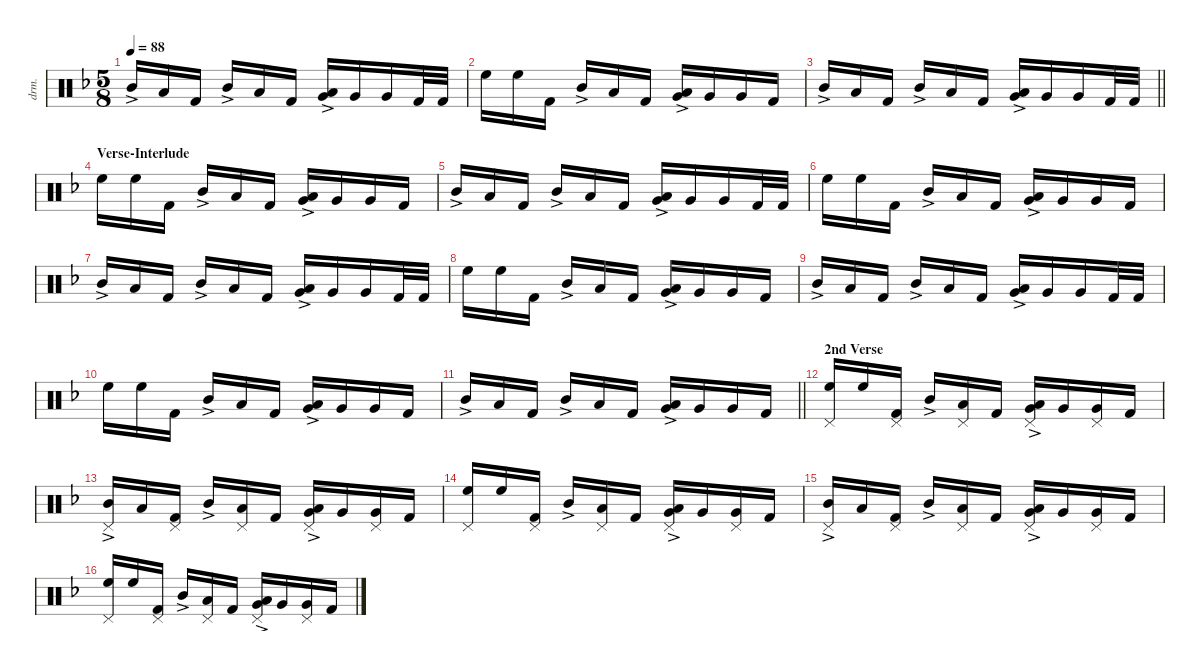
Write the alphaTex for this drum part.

\defaultSystemsLayout 4
\hideDynamics
\bracketExtendMode nobrackets
\otherSystemsTrackNameOrientation horizontal
\track ("Drums" "drm.") {instrument percussion}
\staff {score}
\articulation defaults
\ts (5 8)
\tempo 88
\clef neutral
\ks dminor "Mid Tom (hit)"{ac acc forcenatural}.16{dy f beam Up} "Low Tom (hit)"{acc forcenatural}.16{beam Up beam merge} "Kick (hit) 2"{acc forcenatural}.16{beam Up beam split} "Mid Tom (hit)"{ac acc forcenatural}.16{beam Up beam merge} "Low Tom (hit)"{acc forcenatural}.16{beam Up} "Kick (hit) 2"{acc forcenatural}.16{beam Up beam split}
("Low Tom (hit)"{ac acc forcenatural} "Very Low Tom (hit)"{acc forcenatural}).16{beam Up} "Very Low Tom (hit)"{acc forcenatural}.16{beam Up beam merge} "Very Low Tom (hit)"{acc forcenatural}.16{beam Up} "Kick (hit) 2"{acc forcenatural}.32{beam Up} "Kick (hit) 2"{acc forcenatural}.32{beam Up} |
"High Floor Tom (hit)"{acc forcenatural}.16{beam Down} "High Floor Tom (hit)"{acc forcenatural}.16{beam Down beam merge} "Kick (hit) 2"{acc forcenatural}.16{beam Down beam split} "Mid Tom (hit)"{ac acc forcenatural}.16{beam Up beam merge} "Low Tom (hit)"{acc forcenatural}.16{beam Up} "Kick (hit) 2"{acc forcenatural}.16{beam Up beam split} ("Low Tom (hit)"{ac acc forcenatural} "Very Low Tom (hit)"{acc forcenatural}).16{beam Up} "Very Low Tom (hit)"{acc forcenatural}.16{beam Up beam merge} "Very Low Tom (hit)"{acc forcenatural}.16{beam Up} "Kick (hit) 2"{acc forcenatural}.16{beam Up} |
\barLineRight lightlight "Mid Tom (hit)"{ac acc forcenatural}.16{beam Up} "Low Tom (hit)"{acc forcenatural}.16{beam Up beam merge} "Kick (hit) 2"{acc forcenatural}.16{beam Up beam split} "Mid Tom (hit)"{ac acc forcenatural}.16{beam Up beam merge} "Low Tom (hit)"{acc forcenatural}.16{beam Up} "Kick (hit) 2"{acc forcenatural}.16{beam Up beam split}
("Low Tom (hit)"{ac acc forcenatural} "Very Low Tom (hit)"{acc forcenatural}).16{beam Up} "Very Low Tom (hit)"{acc forcenatural}.16{beam Up beam merge} "Very Low Tom (hit)"{acc forcenatural}.16{beam Up} "Kick (hit) 2"{acc forcenatural}.32{beam Up} "Kick (hit) 2"{acc forcenatural}.32{beam Up} |
\section ("" "Verse-Interlude")
"High Floor Tom (hit)"{acc forcenatural}.16{beam Down} "High Floor Tom (hit)"{acc forcenatural}.16{beam Down beam merge} "Kick (hit) 2"{acc forcenatural}.16{beam Down beam split} "Mid Tom (hit)"{ac acc forcenatural}.16{beam Up beam merge} "Low Tom (hit)"{acc forcenatural}.16{beam Up} "Kick (hit) 2"{acc forcenatural}.16{beam Up beam split} ("Low Tom (hit)"{ac acc forcenatural} "Very Low Tom (hit)"{acc forcenatural}).16{beam Up} "Very Low Tom (hit)"{acc forcenatural}.16{beam Up beam merge} "Very Low Tom (hit)"{acc forcenatural}.16{beam Up} "Kick (hit) 2"{acc forcenatural}.16{beam Up} |
"Mid Tom (hit)"{ac acc forcenatural}.16{beam Up} "Low Tom (hit)"{acc forcenatural}.16{beam Up beam merge} "Kick (hit) 2"{acc forcenatural}.16{beam Up beam split} "Mid Tom (hit)"{ac acc forcenatural}.16{beam Up beam merge} "Low Tom (hit)"{acc forcenatural}.16{beam Up} "Kick (hit) 2"{acc forcenatural}.16{beam Up beam split} ("Low Tom (hit)"{ac acc forcenatural} "Very Low Tom (hit)"{acc forcenatural}).16{beam Up} "Very Low Tom (hit)"{acc forcenatural}.16{beam Up beam merge} "Very Low Tom (hit)"{acc forcenatural}.16{beam Up} "Kick (hit) 2"{acc forcenatural}.32{beam Up} "Kick (hit) 2"{acc forcenatural}.32{beam Up} |
"High Floor Tom (hit)"{acc forcenatural}.16{beam Down} "High Floor Tom (hit)"{acc forcenatural}.16{beam Down beam merge} "Kick (hit) 2"{acc forcenatural}.16{beam Down beam split} "Mid Tom (hit)"{ac acc forcenatural}.16{beam Up beam merge} "Low Tom (hit)"{acc forcenatural}.16{beam Up} "Kick (hit) 2"{acc forcenatural}.16{beam Up beam split} ("Low Tom (hit)"{ac acc forcenatural} "Very Low Tom (hit)"{acc forcenatural}).16{beam Up} "Very Low Tom (hit)"{acc forcenatural}.16{beam Up beam merge} "Very Low Tom (hit)"{acc forcenatural}.16{beam Up} "Kick (hit) 2"{acc forcenatural}.16{beam Up} |
"Mid Tom (hit)"{ac acc forcenatural}.16{beam Up} "Low Tom (hit)"{acc forcenatural}.16{beam Up beam merge} "Kick (hit) 2"{acc forcenatural}.16{beam Up beam split} "Mid Tom (hit)"{ac acc forcenatural}.16{beam Up beam merge} "Low Tom (hit)"{acc forcenatural}.16{beam Up} "Kick (hit) 2"{acc forcenatural}.16{beam Up beam split} ("Low Tom (hit)"{ac acc forcenatural} "Very Low Tom (hit)"{acc forcenatural}).16{beam Up} "Very Low Tom (hit)"{acc forcenatural}.16{beam Up beam merge} "Very Low Tom (hit)"{acc forcenatural}.16{beam Up} "Kick (hit) 2"{acc forcenatural}.32{beam Up} "Kick (hit) 2"{acc forcenatural}.32{beam Up} |
"High Floor Tom (hit)"{acc forcenatural}.16{beam Down} "High Floor Tom (hit)"{acc forcenatural}.16{beam Down beam merge} "Kick (hit) 2"{acc forcenatural}.16{beam Down beam split} "Mid Tom (hit)"{ac acc forcenatural}.16{beam Up beam merge} "Low Tom (hit)"{acc forcenatural}.16{beam Up} "Kick (hit) 2"{acc forcenatural}.16{beam Up beam split} ("Low Tom (hit)"{ac acc forcenatural} "Very Low Tom (hit)"{acc forcenatural}).16{beam Up} "Very Low Tom (hit)"{acc forcenatural}.16{beam Up beam merge} "Very Low Tom (hit)"{acc forcenatural}.16{beam Up} "Kick (hit) 2"{acc forcenatural}.16{beam Up} |
"Mid Tom (hit)"{ac acc forcenatural}.16{beam Up} "Low Tom (hit)"{acc forcenatural}.16{beam Up beam merge} "Kick (hit) 2"{acc forcenatural}.16{beam Up beam split} "Mid Tom (hit)"{ac acc forcenatural}.16{beam Up beam merge} "Low Tom (hit)"{acc forcenatural}.16{beam Up} "Kick (hit) 2"{acc forcenatural}.16{beam Up beam split} ("Low Tom (hit)"{ac acc forcenatural} "Very Low Tom (hit)"{acc forcenatural}).16{beam Up} "Very Low Tom (hit)"{acc forcenatural}.16{beam Up beam merge} "Very Low Tom (hit)"{acc forcenatural}.16{beam Up} "Kick (hit) 2"{acc forcenatural}.32{beam Up} "Kick (hit) 2"{acc forcenatural}.32{beam Up} |
"High Floor Tom (hit)"{acc forcenatural}.16{beam Down} "High Floor Tom (hit)"{acc forcenatural}.16{beam Down beam merge} "Kick (hit) 2"{acc forcenatural}.16{beam Down beam split} "Mid Tom (hit)"{ac acc forcenatural}.16{beam Up beam merge} "Low Tom (hit)"{acc forcenatural}.16{beam Up} "Kick (hit) 2"{acc forcenatural}.16{beam Up beam split} ("Low Tom (hit)"{ac acc forcenatural} "Very Low Tom (hit)"{acc forcenatural}).16{beam Up} "Very Low Tom (hit)"{acc forcenatural}.16{beam Up beam merge} "Very Low Tom (hit)"{acc forcenatural}.16{beam Up} "Kick (hit) 2"{acc forcenatural}.16{beam Up} |
\barLineRight lightlight "Mid Tom (hit)"{ac acc forcenatural}.16{beam Up} "Low Tom (hit)"{acc forcenatural}.16{beam Up beam merge} "Kick (hit) 2"{acc forcenatural}.16{beam Up beam split} "Mid Tom (hit)"{ac acc forcenatural}.16{beam Up beam merge} "Low Tom (hit)"{acc forcenatural}.16{beam Up} "Kick (hit) 2"{acc forcenatural}.16{beam Up beam split}
("Low Tom (hit)"{ac acc forcenatural} "Very Low Tom (hit)"{acc forcenatural}).16{beam Up} "Very Low Tom (hit)"{acc forcenatural}.16{beam Up beam merge} "Very Low Tom (hit)"{acc forcenatural}.16{beam Up} "Kick (hit) 2"{acc forcenatural}.16{beam Up} |
\section ("" "2nd Verse")
("Pedal Hi-Hat (hit)"{acc forcenatural} "High Floor Tom (hit)"{acc forcenatural}).16{beam Up} "High Floor Tom (hit)"{acc forcenatural}.16{beam Up beam merge} ("Pedal Hi-Hat (hit)"{acc forcenatural} "Kick (hit) 2"{acc forcenatural}).16{beam Up beam split} "Mid Tom (hit)"{ac acc forcenatural}.16{beam Up beam merge} ("Pedal Hi-Hat (hit)"{acc forcenatural} "Low Tom (hit)"{acc forcenatural}).16{beam Up} "Kick (hit) 2"{acc forcenatural}.16{beam Up beam split} ("Pedal Hi-Hat (hit)"{acc forcenatural} "Low Tom (hit)"{ac acc forcenatural} "Very Low Tom (hit)"{acc forcenatural}).16{beam Up} "Very Low Tom (hit)"{acc forcenatural}.16{beam Up beam merge} ("Pedal Hi-Hat (hit)"{acc forcenatural} "Very Low Tom (hit)"{acc forcenatural}).16{beam Up} "Kick (hit) 2"{acc forcenatural}.16{beam Up} |
("Pedal Hi-Hat (hit)"{acc forcenatural} "Mid Tom (hit)"{ac acc forcenatural}).16{beam Up} "Low Tom (hit)"{acc forcenatural}.16{beam Up beam merge} ("Pedal Hi-Hat (hit)"{acc forcenatural} "Kick (hit) 2"{acc forcenatural}).16{beam Up beam split} "Mid Tom (hit)"{ac acc forcenatural}.16{beam Up beam merge} ("Pedal Hi-Hat (hit)"{acc forcenatural} "Low Tom (hit)"{acc forcenatural}).16{beam Up} "Kick (hit) 2"{acc forcenatural}.16{beam Up beam split} ("Pedal Hi-Hat (hit)"{acc forcenatural} "Low Tom (hit)"{ac acc forcenatural} "Very Low Tom (hit)"{acc forcenatural}).16{beam Up} "Very Low Tom (hit)"{acc forcenatural}.16{beam Up beam merge} ("Pedal Hi-Hat (hit)"{acc forcenatural} "Very Low Tom (hit)"{acc forcenatural}).16{beam Up} "Kick (hit) 2"{acc forcenatural}.16{beam Up} |
("Pedal Hi-Hat (hit)"{acc forcenatural} "High Floor Tom (hit)"{acc forcenatural}).16{beam Up} "High Floor Tom (hit)"{acc forcenatural}.16{beam Up beam merge} ("Pedal Hi-Hat (hit)"{acc forcenatural} "Kick (hit) 2"{acc forcenatural}).16{beam Up beam split} "Mid Tom (hit)"{ac acc forcenatural}.16{beam Up beam merge} ("Pedal Hi-Hat (hit)"{acc forcenatural} "Low Tom (hit)"{acc forcenatural}).16{beam Up} "Kick (hit) 2"{acc forcenatural}.16{beam Up beam split} ("Pedal Hi-Hat (hit)"{acc forcenatural} "Low Tom (hit)"{ac acc forcenatural} "Very Low Tom (hit)"{acc forcenatural}).16{beam Up} "Very Low Tom (hit)"{acc forcenatural}.16{beam Up beam merge} ("Pedal Hi-Hat (hit)"{acc forcenatural} "Very Low Tom (hit)"{acc forcenatural}).16{beam Up} "Kick (hit) 2"{acc forcenatural}.16{beam Up} |
("Pedal Hi-Hat (hit)"{acc forcenatural} "Mid Tom (hit)"{ac acc forcenatural}).16{beam Up} "Low Tom (hit)"{acc forcenatural}.16{beam Up beam merge} ("Pedal Hi-Hat (hit)"{acc forcenatural} "Kick (hit) 2"{acc forcenatural}).16{beam Up beam split} "Mid Tom (hit)"{ac acc forcenatural}.16{beam Up beam merge} ("Pedal Hi-Hat (hit)"{acc forcenatural} "Low Tom (hit)"{acc forcenatural}).16{beam Up} "Kick (hit) 2"{acc forcenatural}.16{beam Up beam split} ("Pedal Hi-Hat (hit)"{acc forcenatural} "Low Tom (hit)"{ac acc forcenatural} "Very Low Tom (hit)"{acc forcenatural}).16{beam Up} "Very Low Tom (hit)"{acc forcenatural}.16{beam Up beam merge} ("Pedal Hi-Hat (hit)"{acc forcenatural} "Very Low Tom (hit)"{acc forcenatural}).16{beam Up} "Kick (hit) 2"{acc forcenatural}.16{beam Up} |
("Pedal Hi-Hat (hit)"{acc forcenatural} "High Floor Tom (hit)"{acc forcenatural}).16{beam Up} "High Floor Tom (hit)"{acc forcenatural}.16{beam Up beam merge} ("Pedal Hi-Hat (hit)"{acc forcenatural} "Kick (hit) 2"{acc forcenatural}).16{beam Up beam split} "Mid Tom (hit)"{ac acc forcenatural}.16{beam Up beam merge} ("Pedal Hi-Hat (hit)"{acc forcenatural} "Low Tom (hit)"{acc forcenatural}).16{beam Up} "Kick (hit) 2"{acc forcenatural}.16{beam Up beam split} ("Pedal Hi-Hat (hit)"{acc forcenatural} "Low Tom (hit)"{ac acc forcenatural} "Very Low Tom (hit)"{acc forcenatural}).16{beam Up} "Very Low Tom (hit)"{acc forcenatural}.16{beam Up beam merge} ("Pedal Hi-Hat (hit)"{acc forcenatural} "Very Low Tom (hit)"{acc forcenatural}).16{beam Up} "Kick (hit) 2"{acc forcenatural}.16{beam Up}
